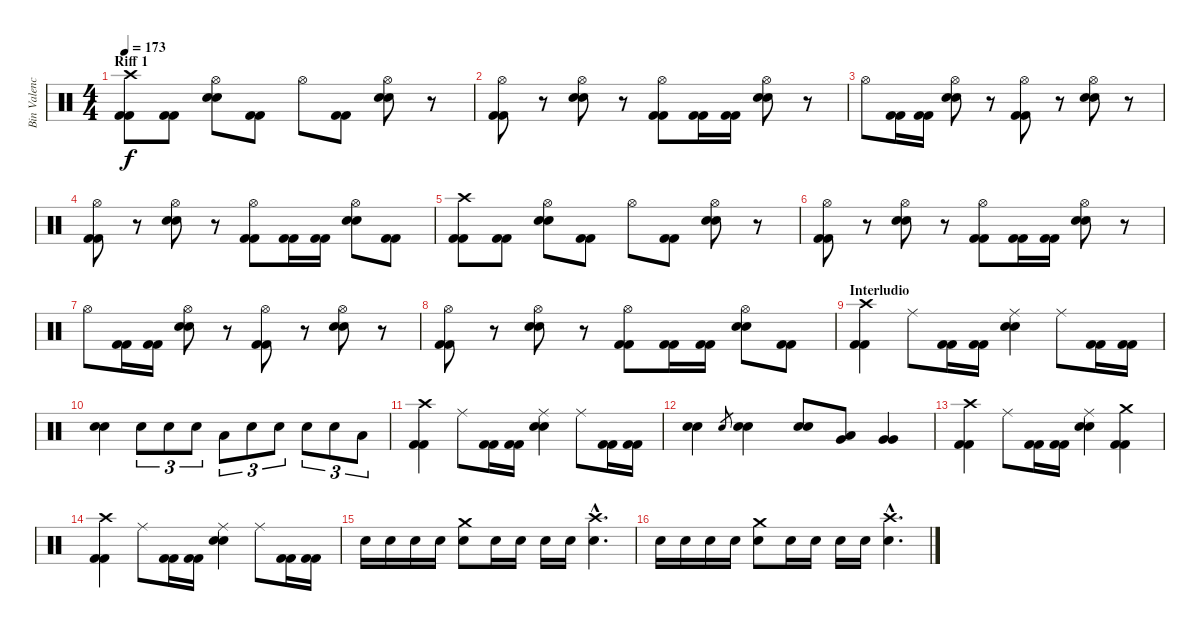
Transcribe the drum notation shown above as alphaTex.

\track ("Bin Valencia (Bateria)" "Bin Valenc") {instrument percussion}
\staff {score}
\articulation defaults
\ts (4 4)
\section ("" "Riff 1")
\tempo 173
\clef neutral
\ks c
("Crash high (hit)" "Kick (hit) 2" "Kick (hit) 2").8{dy f} ("Kick (hit) 2" "Kick (hit) 2").8 ("Hi-Hat (open)" "Snare (hit) 2" "Snare (hit) 2").8 ("Kick (hit) 2" "Kick (hit) 2").8 "Hi-Hat (open)".8 ("Kick (hit) 2" "Kick (hit) 2").8 ("Hi-Hat (open)" "Snare (hit) 2" "Snare (hit) 2").8 r.8 |
("Hi-Hat (open)" "Kick (hit) 2" "Kick (hit) 2").8 r.8 ("Hi-Hat (open)" "Snare (hit) 2" "Snare (hit) 2").8 r.8 ("Hi-Hat (open)" "Kick (hit) 2" "Kick (hit) 2").8 ("Kick (hit) 2" "Kick (hit) 2").16 ("Kick (hit) 2" "Kick (hit) 2").16 ("Hi-Hat (open)" "Snare (hit) 2" "Snare (hit) 2").8 r.8 |
"Hi-Hat (open)".8 ("Kick (hit) 2" "Kick (hit) 2").16 ("Kick (hit) 2" "Kick (hit) 2").16 ("Hi-Hat (open)" "Snare (hit) 2" "Snare (hit) 2").8 r.8 ("Hi-Hat (open)" "Kick (hit) 2" "Kick (hit) 2").8 r.8 ("Hi-Hat (open)" "Snare (hit) 2" "Snare (hit) 2").8 r.8 |
("Hi-Hat (open)" "Kick (hit) 2" "Kick (hit) 2").8 r.8 ("Hi-Hat (open)" "Snare (hit) 2" "Snare (hit) 2").8 r.8 ("Hi-Hat (open)" "Kick (hit) 2" "Kick (hit) 2").8 ("Kick (hit) 2" "Kick (hit) 2").16 ("Kick (hit) 2" "Kick (hit) 2").16 ("Hi-Hat (open)" "Snare (hit) 2" "Snare (hit) 2").8 ("Kick (hit) 2" "Kick (hit) 2").8 |
("Crash high (hit)" "Kick (hit) 2" "Kick (hit) 2").8 ("Kick (hit) 2" "Kick (hit) 2").8 ("Hi-Hat (open)" "Snare (hit) 2" "Snare (hit) 2").8 ("Kick (hit) 2" "Kick (hit) 2").8 "Hi-Hat (open)".8 ("Kick (hit) 2" "Kick (hit) 2").8 ("Hi-Hat (open)" "Snare (hit) 2" "Snare (hit) 2").8 r.8 |
("Hi-Hat (open)" "Kick (hit) 2" "Kick (hit) 2").8 r.8 ("Hi-Hat (open)" "Snare (hit) 2" "Snare (hit) 2").8 r.8 ("Hi-Hat (open)" "Kick (hit) 2" "Kick (hit) 2").8 ("Kick (hit) 2" "Kick (hit) 2").16 ("Kick (hit) 2" "Kick (hit) 2").16 ("Hi-Hat (open)" "Snare (hit) 2" "Snare (hit) 2").8 r.8 |
"Hi-Hat (open)".8 ("Kick (hit) 2" "Kick (hit) 2").16 ("Kick (hit) 2" "Kick (hit) 2").16 ("Hi-Hat (open)" "Snare (hit) 2" "Snare (hit) 2").8 r.8 ("Hi-Hat (open)" "Kick (hit) 2" "Kick (hit) 2").8 r.8 ("Hi-Hat (open)" "Snare (hit) 2" "Snare (hit) 2").8 r.8 |
("Hi-Hat (open)" "Kick (hit) 2" "Kick (hit) 2").8 r.8 ("Hi-Hat (open)" "Snare (hit) 2" "Snare (hit) 2").8 r.8 ("Hi-Hat (open)" "Kick (hit) 2" "Kick (hit) 2").8 ("Kick (hit) 2" "Kick (hit) 2").16 ("Kick (hit) 2" "Kick (hit) 2").16 ("Hi-Hat (open)" "Snare (hit) 2" "Snare (hit) 2").8 ("Kick (hit) 2" "Kick (hit) 2").8 |
\section ("" "Interludio")
("Crash high (hit)" "Kick (hit) 2" "Kick (hit) 2").4 "Ride (middle)".8 ("Kick (hit) 2" "Kick (hit) 2").16 ("Kick (hit) 2" "Kick (hit) 2").16 ("Ride (middle)" "Snare (hit) 2" "Snare (hit) 2").4 "Ride (middle)".8 ("Kick (hit) 2" "Kick (hit) 2").16 ("Kick (hit) 2" "Kick (hit) 2").16 |
("Snare (hit) 2" "Snare (hit) 2").4 "Snare (hit) 2".8{tu (3 2)} "Snare (hit) 2".8{tu (3 2)} "Snare (hit) 2".8{tu (3 2)} "Low Tom (hit)".8{tu (3 2)} "Snare (hit) 2".8{tu (3 2)} "Snare (hit) 2".8{tu (3 2)} "Snare (hit) 2".8{tu (3 2)} "Snare (hit) 2".8{tu (3 2)} "Low Tom (hit)".8{tu (3 2)} |
("Crash high (hit)" "Kick (hit) 2" "Kick (hit) 2").4 "Ride (middle)".8 ("Kick (hit) 2" "Kick (hit) 2").16 ("Kick (hit) 2" "Kick (hit) 2").16 ("Ride (middle)" "Snare (hit) 2" "Snare (hit) 2").4 "Ride (middle)".8 ("Kick (hit) 2" "Kick (hit) 2").16 ("Kick (hit) 2" "Kick (hit) 2").16 |
("Snare (hit) 2" "Snare (hit) 2").4 "Snare (hit) 2".8{gr} ("Snare (hit) 2" "Snare (hit) 2").4 ("Snare (hit) 2" "Snare (hit) 2").8 ("Low Tom (hit)" "Very Low Tom (hit)").8 ("Very Low Tom (hit)" "Very Low Tom (hit)").4 |
("Crash high (hit)" "Kick (hit) 2" "Kick (hit) 2").4 "Ride (middle)".8 ("Kick (hit) 2" "Kick (hit) 2").16 ("Kick (hit) 2" "Kick (hit) 2").16 ("Ride (middle)" "Snare (hit) 2" "Snare (hit) 2").4 ("Crash medium (hit)" "Kick (hit) 2" "Kick (hit) 2").4 |
("Crash high (hit)" "Kick (hit) 2" "Kick (hit) 2").4 "Ride (middle)".8 ("Kick (hit) 2" "Kick (hit) 2").16 ("Kick (hit) 2" "Kick (hit) 2").16 ("Ride (middle)" "Snare (hit) 2" "Snare (hit) 2").4 "Ride (middle)".8 ("Kick (hit) 2" "Kick (hit) 2").16 ("Kick (hit) 2" "Kick (hit) 2").16 |
"Snare (hit) 2".16 "Snare (hit) 2".16 "Snare (hit) 2".16 "Snare (hit) 2".16 ("Crash medium (hit)" "Snare (hit) 2").8 "Snare (hit) 2".16 "Snare (hit) 2".16 "Snare (hit) 2".16 "Snare (hit) 2".16 ("Crash high (hit)"{hac} "Snare (hit) 2"{hac}).4{d} |
"Snare (hit) 2".16 "Snare (hit) 2".16 "Snare (hit) 2".16 "Snare (hit) 2".16 ("Crash medium (hit)" "Snare (hit) 2").8 "Snare (hit) 2".16 "Snare (hit) 2".16 "Snare (hit) 2".16 "Snare (hit) 2".16 ("Crash high (hit)"{hac} "Snare (hit) 2"{hac}).4{d}
